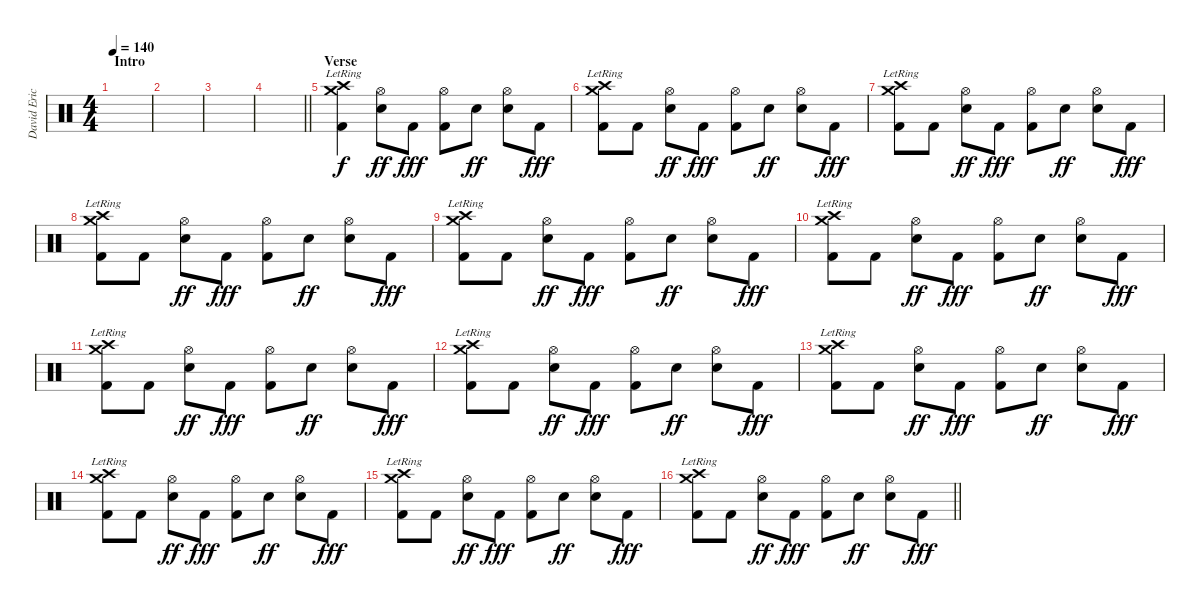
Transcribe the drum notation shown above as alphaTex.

\track ("David Eric Grohl" "David Eric") {instrument percussion}
\staff {score}
\articulation defaults
\ts (4 4)
\section ("" "Intro")
\tempo 140
\clef neutral
\ks c
|
|
|
\barLineRight lightlight
|
\section ("" "Verse")
("Crash high (hit)"{lr} "Crash medium (hit)"{lr} "Kick (hit) 2").4 ("Hi-Hat (open)" "Electric Snare (hit)").8{dy ff} "Kick (hit) 2".8{dy fff} ("Hi-Hat (open)" "Kick (hit) 2").8 "Electric Snare (hit)".8{dy ff} ("Hi-Hat (open)" "Electric Snare (hit)").8 "Kick (hit) 2".8{dy fff} |
("Crash high (hit)"{lr} "Crash medium (hit)"{lr} "Kick (hit) 2").8 "Kick (hit) 2".8 ("Hi-Hat (open)" "Electric Snare (hit)").8{dy ff} "Kick (hit) 2".8{dy fff} ("Hi-Hat (open)" "Kick (hit) 2").8 "Electric Snare (hit)".8{dy ff} ("Hi-Hat (open)" "Electric Snare (hit)").8 "Kick (hit) 2".8{dy fff} |
("Crash high (hit)"{lr} "Crash medium (hit)"{lr} "Kick (hit) 2").8 "Kick (hit) 2".8 ("Hi-Hat (open)" "Electric Snare (hit)").8{dy ff} "Kick (hit) 2".8{dy fff} ("Hi-Hat (open)" "Kick (hit) 2").8 "Electric Snare (hit)".8{dy ff} ("Hi-Hat (open)" "Electric Snare (hit)").8 "Kick (hit) 2".8{dy fff} |
("Crash high (hit)"{lr} "Crash medium (hit)"{lr} "Kick (hit) 2").8 "Kick (hit) 2".8 ("Hi-Hat (open)" "Electric Snare (hit)").8{dy ff} "Kick (hit) 2".8{dy fff} ("Hi-Hat (open)" "Kick (hit) 2").8 "Electric Snare (hit)".8{dy ff} ("Hi-Hat (open)" "Electric Snare (hit)").8 "Kick (hit) 2".8{dy fff} |
("Crash high (hit)"{lr} "Crash medium (hit)"{lr} "Kick (hit) 2").8 "Kick (hit) 2".8 ("Hi-Hat (open)" "Electric Snare (hit)").8{dy ff} "Kick (hit) 2".8{dy fff} ("Hi-Hat (open)" "Kick (hit) 2").8 "Electric Snare (hit)".8{dy ff} ("Hi-Hat (open)" "Electric Snare (hit)").8 "Kick (hit) 2".8{dy fff} |
("Crash high (hit)"{lr} "Crash medium (hit)"{lr} "Kick (hit) 2").8 "Kick (hit) 2".8 ("Hi-Hat (open)" "Electric Snare (hit)").8{dy ff} "Kick (hit) 2".8{dy fff} ("Hi-Hat (open)" "Kick (hit) 2").8 "Electric Snare (hit)".8{dy ff} ("Hi-Hat (open)" "Electric Snare (hit)").8 "Kick (hit) 2".8{dy fff} |
("Crash high (hit)"{lr} "Crash medium (hit)"{lr} "Kick (hit) 2").8 "Kick (hit) 2".8 ("Hi-Hat (open)" "Electric Snare (hit)").8{dy ff} "Kick (hit) 2".8{dy fff} ("Hi-Hat (open)" "Kick (hit) 2").8 "Electric Snare (hit)".8{dy ff} ("Hi-Hat (open)" "Electric Snare (hit)").8 "Kick (hit) 2".8{dy fff} |
("Crash high (hit)"{lr} "Crash medium (hit)"{lr} "Kick (hit) 2").8 "Kick (hit) 2".8 ("Hi-Hat (open)" "Electric Snare (hit)").8{dy ff} "Kick (hit) 2".8{dy fff} ("Hi-Hat (open)" "Kick (hit) 2").8 "Electric Snare (hit)".8{dy ff} ("Hi-Hat (open)" "Electric Snare (hit)").8 "Kick (hit) 2".8{dy fff} |
("Crash high (hit)"{lr} "Crash medium (hit)"{lr} "Kick (hit) 2").8 "Kick (hit) 2".8 ("Hi-Hat (open)" "Electric Snare (hit)").8{dy ff} "Kick (hit) 2".8{dy fff} ("Hi-Hat (open)" "Kick (hit) 2").8 "Electric Snare (hit)".8{dy ff} ("Hi-Hat (open)" "Electric Snare (hit)").8 "Kick (hit) 2".8{dy fff} |
("Crash high (hit)"{lr} "Crash medium (hit)"{lr} "Kick (hit) 2").8 "Kick (hit) 2".8 ("Hi-Hat (open)" "Electric Snare (hit)").8{dy ff} "Kick (hit) 2".8{dy fff} ("Hi-Hat (open)" "Kick (hit) 2").8 "Electric Snare (hit)".8{dy ff} ("Hi-Hat (open)" "Electric Snare (hit)").8 "Kick (hit) 2".8{dy fff} |
("Crash high (hit)"{lr} "Crash medium (hit)"{lr} "Kick (hit) 2").8 "Kick (hit) 2".8 ("Hi-Hat (open)" "Electric Snare (hit)").8{dy ff} "Kick (hit) 2".8{dy fff} ("Hi-Hat (open)" "Kick (hit) 2").8 "Electric Snare (hit)".8{dy ff} ("Hi-Hat (open)" "Electric Snare (hit)").8 "Kick (hit) 2".8{dy fff} |
\barLineRight lightlight
("Crash high (hit)"{lr} "Crash medium (hit)"{lr} "Kick (hit) 2").8 "Kick (hit) 2".8 ("Hi-Hat (open)" "Electric Snare (hit)").8{dy ff} "Kick (hit) 2".8{dy fff} ("Hi-Hat (open)" "Kick (hit) 2").8 "Electric Snare (hit)".8{dy ff} ("Hi-Hat (open)" "Electric Snare (hit)").8 "Kick (hit) 2".8{dy fff}
